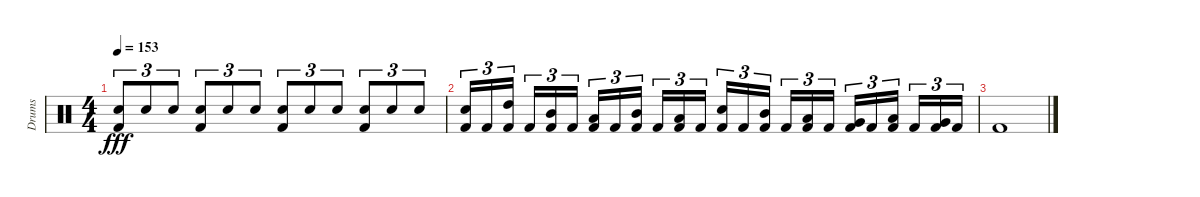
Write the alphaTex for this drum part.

\track ("Drums" "Drums") {instrument percussion}
\staff {score}
\articulation defaults
\ts (4 4)
\tempo 153
\clef neutral
\ks c
("Electric Snare (hit)" "Kick (hit) 2").8{tu (3 2) dy fff} "Electric Snare (hit)".8{tu (3 2)} "Electric Snare (hit)".8{tu (3 2)} ("Electric Snare (hit)" "Kick (hit) 2").8{tu (3 2)} "Electric Snare (hit)".8{tu (3 2)} "Electric Snare (hit)".8{tu (3 2)} ("Electric Snare (hit)" "Kick (hit) 2").8{tu (3 2)} "Electric Snare (hit)".8{tu (3 2)} "Electric Snare (hit)".8{tu (3 2)} ("Electric Snare (hit)" "Kick (hit) 2").8{tu (3 2)} "Electric Snare (hit)".8{tu (3 2)} "Electric Snare (hit)".8{tu (3 2)} |
("Electric Snare (hit)" "Kick (hit) 2").16{tu (3 2)} "Kick (hit) 2".16{tu (3 2)} ("High Tom (hit)" "Kick (hit) 2").16{tu (3 2) beam splitsecondary} "Kick (hit) 2".16{tu (3 2)} ("Mid Tom (hit)" "Kick (hit) 2").16{tu (3 2)} "Kick (hit) 2".16{tu (3 2)} ("Low Tom (hit)" "Kick (hit) 2").16{tu (3 2)} "Kick (hit) 2".16{tu (3 2)} ("Mid Tom (hit)" "Kick (hit) 2").16{tu (3 2) beam splitsecondary} "Kick (hit) 2".16{tu (3 2)} ("Low Tom (hit)" "Kick (hit) 2").16{tu (3 2)} "Kick (hit) 2".16{tu (3 2)} ("Electric Snare (hit)" "Kick (hit) 2").16{tu (3 2)} "Kick (hit) 2".16{tu (3 2)} ("Mid Tom (hit)" "Kick (hit) 2").16{tu (3 2) beam splitsecondary} "Kick (hit) 2".16{tu (3 2)} ("Low Tom (hit)" "Kick (hit) 2").16{tu (3 2)} "Kick (hit) 2".16{tu (3 2)} ("Very Low Tom (hit)" "Kick (hit) 2").16{tu (3 2)} "Kick (hit) 2".16{tu (3 2)} ("Low Tom (hit)" "Kick (hit) 2").16{tu (3 2) beam splitsecondary} "Kick (hit) 2".16{tu (3 2)} ("Very Low Tom (hit)" "Kick (hit) 2").16{tu (3 2)} "Kick (hit) 2".16{tu (3 2)} |
"Kick (hit) 2".1
